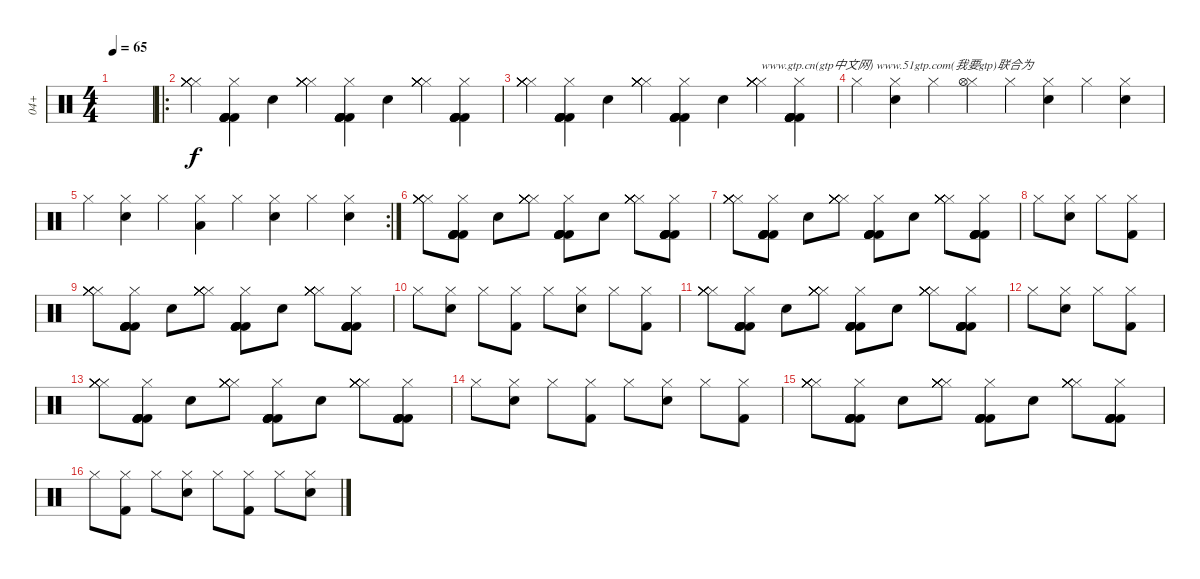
\track ("04+" "04+") {instrument percussion}
\staff {score}
\articulation defaults
\ts (4 4)
\tempo 65
\clef neutral
\ks c
|
\ro
("Hi-Hat (closed)" "Hi-Hat (closed)" "Hi-Hat (closed)" "Hi-Hat (closed)" "Hi-Hat (closed)" "Hi-Hat (closed)").4 ("Hi-Hat (closed)" "Kick (hit) 2" "Kick (hit) 2" "Kick (hit) 2" "Kick (hit) 2" "Kick (hit) 2").4 "Hand Clap (hit)".4 ("Hi-Hat (closed)" "Hi-Hat (closed)" "Hi-Hat (closed)" "Hi-Hat (closed)" "Hi-Hat (closed)" "Hi-Hat (closed)").4 ("Hi-Hat (closed)" "Kick (hit) 2" "Kick (hit) 2" "Kick (hit) 2" "Kick (hit) 2" "Kick (hit) 2").4 "Hand Clap (hit)".4 ("Hi-Hat (closed)" "Hi-Hat (closed)" "Hi-Hat (closed)" "Hi-Hat (closed)" "Hi-Hat (closed)" "Hi-Hat (closed)").4 ("Hi-Hat (closed)" "Kick (hit) 2" "Kick (hit) 2" "Kick (hit) 2" "Kick (hit) 2" "Kick (hit) 2").4 |
("Hi-Hat (closed)" "Hi-Hat (closed)" "Hi-Hat (closed)" "Hi-Hat (closed)" "Hi-Hat (closed)" "Hi-Hat (closed)").4 ("Hi-Hat (closed)" "Kick (hit) 2" "Kick (hit) 2" "Kick (hit) 2" "Kick (hit) 2" "Kick (hit) 2").4 "Hand Clap (hit)".4 ("Hi-Hat (closed)" "Hi-Hat (closed)" "Hi-Hat (closed)" "Hi-Hat (closed)" "Hi-Hat (closed)" "Hi-Hat (closed)").4 ("Hi-Hat (closed)" "Kick (hit) 2" "Kick (hit) 2" "Kick (hit) 2" "Kick (hit) 2" "Kick (hit) 2").4 "Hand Clap (hit)".4 ("Hi-Hat (closed)" "Hi-Hat (closed)" "Hi-Hat (closed)" "Hi-Hat (closed)" "Hi-Hat (closed)" "Hi-Hat (closed)").4{txt "www.gtp.cn(gtp中文网) www.51gtp.com(我要gtp)联合为"} ("Hi-Hat (closed)" "Kick (hit) 2" "Kick (hit) 2" "Kick (hit) 2" "Kick (hit) 2" "Kick (hit) 2").4 |
"Hi-Hat (closed)".4 ("Hi-Hat (closed)" "Electric Snare (hit)").4 "Hi-Hat (closed)".4 ("Hi-Hat (closed)" "Hi-Hat (open)").4 "Hi-Hat (closed)".4 ("Hi-Hat (closed)" "Electric Snare (hit)").4 "Hi-Hat (closed)".4 ("Hi-Hat (closed)" "Hand Clap (hit)").4 |
\rc 2 "Hi-Hat (closed)".4
("Hi-Hat (closed)" "Electric Snare (hit)").4 "Hi-Hat (closed)".4 ("Hi-Hat (closed)" "Low Tom (hit)").4 "Hi-Hat (closed)".4 ("Hi-Hat (closed)" "Electric Snare (hit)").4 "Hi-Hat (closed)".4 ("Hi-Hat (closed)" "Hand Clap (hit)").4 |
("Hi-Hat (closed)" "Hi-Hat (closed)" "Hi-Hat (closed)" "Hi-Hat (closed)" "Hi-Hat (closed)" "Hi-Hat (closed)").8 ("Hi-Hat (closed)" "Kick (hit) 2" "Kick (hit) 2" "Kick (hit) 2" "Kick (hit) 2" "Kick (hit) 2").8 "Hand Clap (hit)".8 ("Hi-Hat (closed)" "Hi-Hat (closed)" "Hi-Hat (closed)" "Hi-Hat (closed)" "Hi-Hat (closed)" "Hi-Hat (closed)").8 ("Hi-Hat (closed)" "Kick (hit) 2" "Kick (hit) 2" "Kick (hit) 2" "Kick (hit) 2" "Kick (hit) 2").8 "Hand Clap (hit)".8 ("Hi-Hat (closed)" "Hi-Hat (closed)" "Hi-Hat (closed)" "Hi-Hat (closed)" "Hi-Hat (closed)" "Hi-Hat (closed)").8 ("Hi-Hat (closed)" "Kick (hit) 2" "Kick (hit) 2" "Kick (hit) 2" "Kick (hit) 2" "Kick (hit) 2").8 |
("Hi-Hat (closed)" "Hi-Hat (closed)" "Hi-Hat (closed)" "Hi-Hat (closed)" "Hi-Hat (closed)" "Hi-Hat (closed)").8 ("Hi-Hat (closed)" "Kick (hit) 2" "Kick (hit) 2" "Kick (hit) 2" "Kick (hit) 2" "Kick (hit) 2").8 "Hand Clap (hit)".8 ("Hi-Hat (closed)" "Hi-Hat (closed)" "Hi-Hat (closed)" "Hi-Hat (closed)" "Hi-Hat (closed)" "Hi-Hat (closed)").8 ("Hi-Hat (closed)" "Kick (hit) 2" "Kick (hit) 2" "Kick (hit) 2" "Kick (hit) 2" "Kick (hit) 2").8 "Hand Clap (hit)".8 ("Hi-Hat (closed)" "Hi-Hat (closed)" "Hi-Hat (closed)" "Hi-Hat (closed)" "Hi-Hat (closed)" "Hi-Hat (closed)").8 ("Hi-Hat (closed)" "Kick (hit) 2" "Kick (hit) 2" "Kick (hit) 2" "Kick (hit) 2" "Kick (hit) 2").8 |
"Hi-Hat (closed)".8 ("Hi-Hat (closed)" "Electric Snare (hit)").8 "Hi-Hat (closed)".8 ("Hi-Hat (closed)" "Kick (hit) 2").8 |
("Hi-Hat (closed)" "Hi-Hat (closed)" "Hi-Hat (closed)" "Hi-Hat (closed)" "Hi-Hat (closed)" "Hi-Hat (closed)").8 ("Hi-Hat (closed)" "Kick (hit) 2" "Kick (hit) 2" "Kick (hit) 2" "Kick (hit) 2" "Kick (hit) 2").8 "Hand Clap (hit)".8 ("Hi-Hat (closed)" "Hi-Hat (closed)" "Hi-Hat (closed)" "Hi-Hat (closed)" "Hi-Hat (closed)" "Hi-Hat (closed)").8 ("Hi-Hat (closed)" "Kick (hit) 2" "Kick (hit) 2" "Kick (hit) 2" "Kick (hit) 2" "Kick (hit) 2").8 "Hand Clap (hit)".8 ("Hi-Hat (closed)" "Hi-Hat (closed)" "Hi-Hat (closed)" "Hi-Hat (closed)" "Hi-Hat (closed)" "Hi-Hat (closed)").8 ("Hi-Hat (closed)" "Kick (hit) 2" "Kick (hit) 2" "Kick (hit) 2" "Kick (hit) 2" "Kick (hit) 2").8 |
"Hi-Hat (closed)".8 ("Hi-Hat (closed)" "Electric Snare (hit)").8 "Hi-Hat (closed)".8 ("Hi-Hat (closed)" "Kick (hit) 2").8 "Hi-Hat (closed)".8 ("Hi-Hat (closed)" "Electric Snare (hit)").8 "Hi-Hat (closed)".8 ("Hi-Hat (closed)" "Kick (hit) 2").8 |
("Hi-Hat (closed)" "Hi-Hat (closed)" "Hi-Hat (closed)" "Hi-Hat (closed)" "Hi-Hat (closed)" "Hi-Hat (closed)").8 ("Hi-Hat (closed)" "Kick (hit) 2" "Kick (hit) 2" "Kick (hit) 2" "Kick (hit) 2" "Kick (hit) 2").8 "Hand Clap (hit)".8 ("Hi-Hat (closed)" "Hi-Hat (closed)" "Hi-Hat (closed)" "Hi-Hat (closed)" "Hi-Hat (closed)" "Hi-Hat (closed)").8 ("Hi-Hat (closed)" "Kick (hit) 2" "Kick (hit) 2" "Kick (hit) 2" "Kick (hit) 2" "Kick (hit) 2").8 "Hand Clap (hit)".8 ("Hi-Hat (closed)" "Hi-Hat (closed)" "Hi-Hat (closed)" "Hi-Hat (closed)" "Hi-Hat (closed)" "Hi-Hat (closed)").8 ("Hi-Hat (closed)" "Kick (hit) 2" "Kick (hit) 2" "Kick (hit) 2" "Kick (hit) 2" "Kick (hit) 2").8 |
"Hi-Hat (closed)".8 ("Hi-Hat (closed)" "Electric Snare (hit)").8 "Hi-Hat (closed)".8 ("Hi-Hat (closed)" "Kick (hit) 2").8 |
("Hi-Hat (closed)" "Hi-Hat (closed)" "Hi-Hat (closed)" "Hi-Hat (closed)" "Hi-Hat (closed)" "Hi-Hat (closed)").8 ("Hi-Hat (closed)" "Kick (hit) 2" "Kick (hit) 2" "Kick (hit) 2" "Kick (hit) 2" "Kick (hit) 2").8 "Hand Clap (hit)".8 ("Hi-Hat (closed)" "Hi-Hat (closed)" "Hi-Hat (closed)" "Hi-Hat (closed)" "Hi-Hat (closed)" "Hi-Hat (closed)").8 ("Hi-Hat (closed)" "Kick (hit) 2" "Kick (hit) 2" "Kick (hit) 2" "Kick (hit) 2" "Kick (hit) 2").8 "Hand Clap (hit)".8 ("Hi-Hat (closed)" "Hi-Hat (closed)" "Hi-Hat (closed)" "Hi-Hat (closed)" "Hi-Hat (closed)" "Hi-Hat (closed)").8 ("Hi-Hat (closed)" "Kick (hit) 2" "Kick (hit) 2" "Kick (hit) 2" "Kick (hit) 2" "Kick (hit) 2").8 |
"Hi-Hat (closed)".8 ("Hi-Hat (closed)" "Electric Snare (hit)").8 "Hi-Hat (closed)".8 ("Hi-Hat (closed)" "Kick (hit) 2").8 "Hi-Hat (closed)".8 ("Hi-Hat (closed)" "Electric Snare (hit)").8 "Hi-Hat (closed)".8 ("Hi-Hat (closed)" "Kick (hit) 2").8 |
("Hi-Hat (closed)" "Hi-Hat (closed)" "Hi-Hat (closed)" "Hi-Hat (closed)" "Hi-Hat (closed)" "Hi-Hat (closed)").8 ("Hi-Hat (closed)" "Kick (hit) 2" "Kick (hit) 2" "Kick (hit) 2" "Kick (hit) 2" "Kick (hit) 2").8 "Hand Clap (hit)".8 ("Hi-Hat (closed)" "Hi-Hat (closed)" "Hi-Hat (closed)" "Hi-Hat (closed)" "Hi-Hat (closed)" "Hi-Hat (closed)").8 ("Hi-Hat (closed)" "Kick (hit) 2" "Kick (hit) 2" "Kick (hit) 2" "Kick (hit) 2" "Kick (hit) 2").8 "Hand Clap (hit)".8 ("Hi-Hat (closed)" "Hi-Hat (closed)" "Hi-Hat (closed)" "Hi-Hat (closed)" "Hi-Hat (closed)" "Hi-Hat (closed)").8 ("Hi-Hat (closed)" "Kick (hit) 2" "Kick (hit) 2" "Kick (hit) 2" "Kick (hit) 2" "Kick (hit) 2").8 |
"Hi-Hat (closed)".8 ("Hi-Hat (closed)" "Kick (hit) 2").8 "Hi-Hat (closed)".8 ("Hi-Hat (closed)" "Electric Snare (hit)").8 "Hi-Hat (closed)".8 ("Hi-Hat (closed)" "Kick (hit) 2").8 "Hi-Hat (closed)".8 ("Hi-Hat (closed)" "Electric Snare (hit)").8
